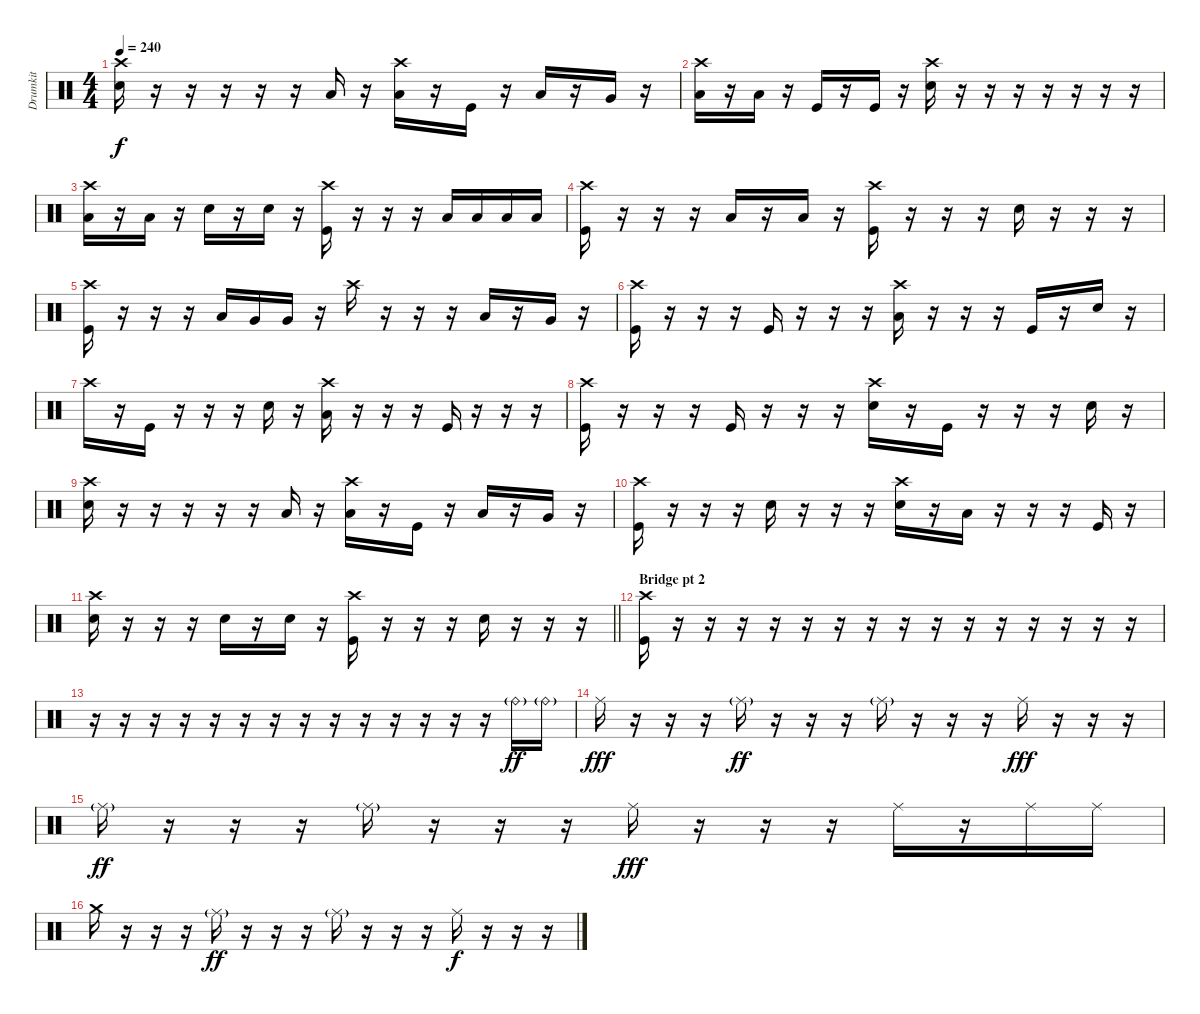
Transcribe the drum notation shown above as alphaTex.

\track ("Drumkit" "Drumkit") {instrument percussion}
\staff {score}
\articulation defaults
\ts (4 4)
\tempo 240
\clef neutral
\ks c
("Crash high (hit)" "Snare (hit) 2").16{dy f} r.16 r.16 r.16 r.16 r.16 "Low Tom (hit)".16 r.16 ("Crash high (hit)" "Low Tom (hit)").16 r.16 "Kick (hit)".16 r.16 "Low Tom (hit)".16 r.16 "Very Low Tom (hit)".16 r.16 |
("Crash high (hit)" "Low Tom (hit)").16 r.16 "Low Tom (hit)".16 r.16 "Kick (hit)".16 r.16 "Kick (hit)".16 r.16 ("Crash high (hit)" "Snare (hit) 2").16 r.16 r.16 r.16 r.16 r.16 r.16 r.16 |
("Crash high (hit)" "Low Tom (hit)").16 r.16 "Low Tom (hit)".16 r.16 "Snare (hit) 2".16 r.16 "Snare (hit) 2".16 r.16 ("Crash high (hit)" "Kick (hit)").16 r.16 r.16 r.16 "Low Tom (hit)".16 "Low Tom (hit)".16 "Low Floor Tom (hit)".16 "Low Floor Tom (hit)".16 |
("Crash high (hit)" "Kick (hit)").16 r.16 r.16 r.16 "Low Tom (hit)".16 r.16 "Low Tom (hit)".16 r.16 ("Crash high (hit)" "Kick (hit)").16 r.16 r.16 r.16 "Snare (hit) 2".16 r.16 r.16 r.16 |
("Crash high (hit)" "Kick (hit)").16 r.16 r.16 r.16 "Low Tom (hit)".16 "Very Low Tom (hit)".16 "Very Low Tom (hit)".16 r.16 "Crash high (hit)".16 r.16 r.16 r.16 "Low Tom (hit)".16 r.16 "Very Low Tom (hit)".16 r.16 |
("Crash high (hit)" "Kick (hit)").16 r.16 r.16 r.16 "Kick (hit)".16 r.16 r.16 r.16 ("Crash high (hit)" "Low Tom (hit)").16 r.16 r.16 r.16 "Kick (hit)".16 r.16 "Snare (hit) 2".16 r.16 |
"Crash high (hit)".16 r.16 "Kick (hit)".16 r.16 r.16 r.16 "Snare (hit) 2".16 r.16 ("Crash high (hit)" "Low Tom (hit)").16 r.16 r.16 r.16 "Kick (hit)".16 r.16 r.16 r.16 |
("Crash high (hit)" "Kick (hit)").16 r.16 r.16 r.16 "Kick (hit)".16 r.16 r.16 r.16 ("Crash high (hit)" "Snare (hit) 2").16 r.16 "Kick (hit)".16 r.16 r.16 r.16 "Snare (hit) 2".16 r.16 |
("Crash high (hit)" "Snare (hit) 2").16 r.16 r.16 r.16 r.16 r.16 "Low Tom (hit)".16 r.16 ("Crash high (hit)" "Low Tom (hit)").16 r.16 "Kick (hit)".16 r.16 "Low Tom (hit)".16 r.16 "Very Low Tom (hit)".16 r.16 |
("Crash high (hit)" "Kick (hit)").16 r.16 r.16 r.16 "Snare (hit) 2".16 r.16 r.16 r.16 ("Crash high (hit)" "Snare (hit) 2").16 r.16 "Low Tom (hit)".16 r.16 r.16 r.16 "Kick (hit)".16 r.16 |
\barLineRight lightlight
("Crash high (hit)" "Snare (hit) 2").16 r.16 r.16 r.16 "Snare (hit) 2".16 r.16 "Snare (hit) 2".16 r.16 ("Crash high (hit)" "Kick (hit)").16 r.16 r.16 r.16 "Snare (hit) 2".16 r.16 r.16 r.16 |
\section ("" "Bridge pt 2")
("Crash high (hit)" "Kick (hit)").16 r.16 r.16 r.16 r.16 r.16 r.16 r.16 r.16 r.16 r.16 r.16 r.16 r.16 r.16 r.16 |
r.16 r.16 r.16 r.16 r.16 r.16 r.16 r.16 r.16 r.16 r.16 r.16 r.16 r.16 "Ride (bell)"{g}.16{dy ff} "Ride (bell)"{g}.16 |
"Ride (middle)".16{dy fff} r.16 r.16 r.16 "Ride (middle)"{g}.16{dy ff} r.16 r.16 r.16 "Ride (middle)"{g}.16 r.16 r.16 r.16 "Ride (middle)".16{dy fff} r.16 r.16 r.16 |
"Ride (middle)"{g}.16{dy ff} r.16 r.16 r.16 "Ride (middle)"{g}.16 r.16 r.16 r.16 "Ride (middle)".16{dy fff} r.16 r.16 r.16 "Ride (middle)".16 r.16 "Ride (middle)".16 "Ride (middle)".16 |
"Crash medium (hit)".16 r.16 r.16 r.16 "Ride (middle)"{g}.16{dy ff} r.16 r.16 r.16 "Ride (middle)"{g}.16 r.16 r.16 r.16 "Ride (middle)".16{dy f} r.16 r.16 r.16
